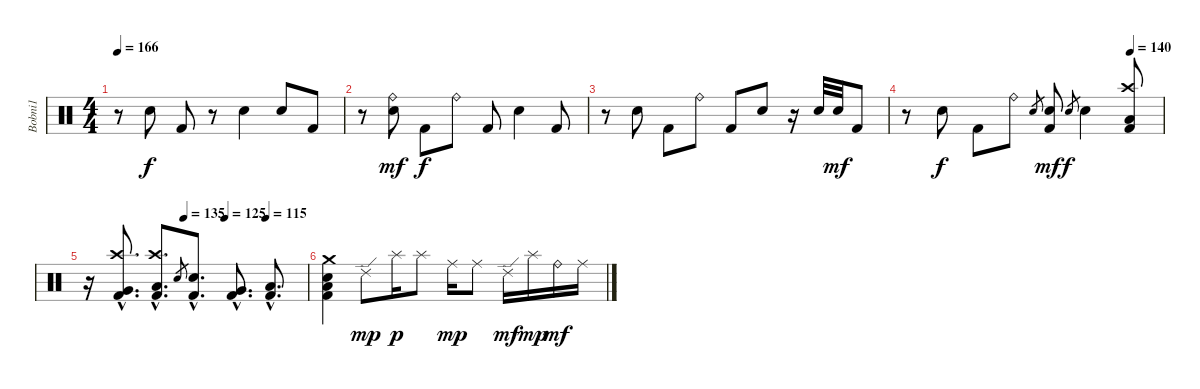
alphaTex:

\track ("Bobni1" "Bobni1") {instrument percussion}
\staff {score}
\articulation defaults
\ts (4 4)
\tempo 166
\clef neutral
\ks c
r.8{dy f} "Snare (hit) 2".8 "Kick (hit) 2".8 r.8 "Snare (hit) 2".4 "Snare (hit) 2".8 "Kick (hit) 2".8 |
r.8 ("Ride (bell)" "Snare (hit) 2").8{dy mf} "Kick (hit) 2".8{dy f} "Ride (bell)".8 "Kick (hit) 2".8 "Snare (hit) 2".4 "Kick (hit) 2".8 |
r.8 "Snare (hit) 2".8 "Kick (hit) 2".8 "Ride (bell)".8 "Kick (hit) 2".8 "Snare (hit) 2".8 r.16 "Snare (hit) 2".32 "Snare (hit) 2".32{dy mf} "Kick (hit) 2".8 |
\tempo (140 0.875)
r.8 "Snare (hit) 2".8{dy f} "Kick (hit) 2".8 "Ride (bell)".8 "Electric Snare (hit)".8{gr} ("Snare (hit) 2" "Kick (hit) 2").8{dy mf} "Electric Snare (hit)".8{gr dy f} "Snare (hit) 2".4 ("Crash high (hit)" "Low Tom (hit)" "Kick (hit) 2").8 |
\tempo (135 0.4375)
\tempo (125 0.625)
\tempo (115 0.8125)
r.16 ("Crash high (hit)"{hac} "Very Low Tom (hit)"{hac} "Kick (hit) 2"{hac}).8{d} ("Crash high (hit)"{hac} "Low Floor Tom (hit)"{hac} "Kick (hit) 2"{hac}).8{d} "Electric Snare (hit)".8{gr} ("Snare (hit) 2"{hac} "Kick (hit) 2"{hac}).8{d} ("Very Low Tom (hit)"{hac} "Kick (hit) 2"{hac}).8{d} ("Low Floor Tom (hit)"{hac} "Kick (hit) 2"{hac}).8{d} |
("Crash medium (hit)" "Snare (hit) 2" "Low Tom (hit)" "Kick (hit) 2").4 "Ride (edge) 2".8{dy mp} "Splash (hit)".16{dy p} "Splash (hit)".8 "Ride (middle)".16{dy mp} "Ride (middle)".8 "Ride (edge) 2".16{dy mf} "Splash (hit)".16{dy mp} "Ride (bell)".16{dy mf} "Ride (middle)".16
